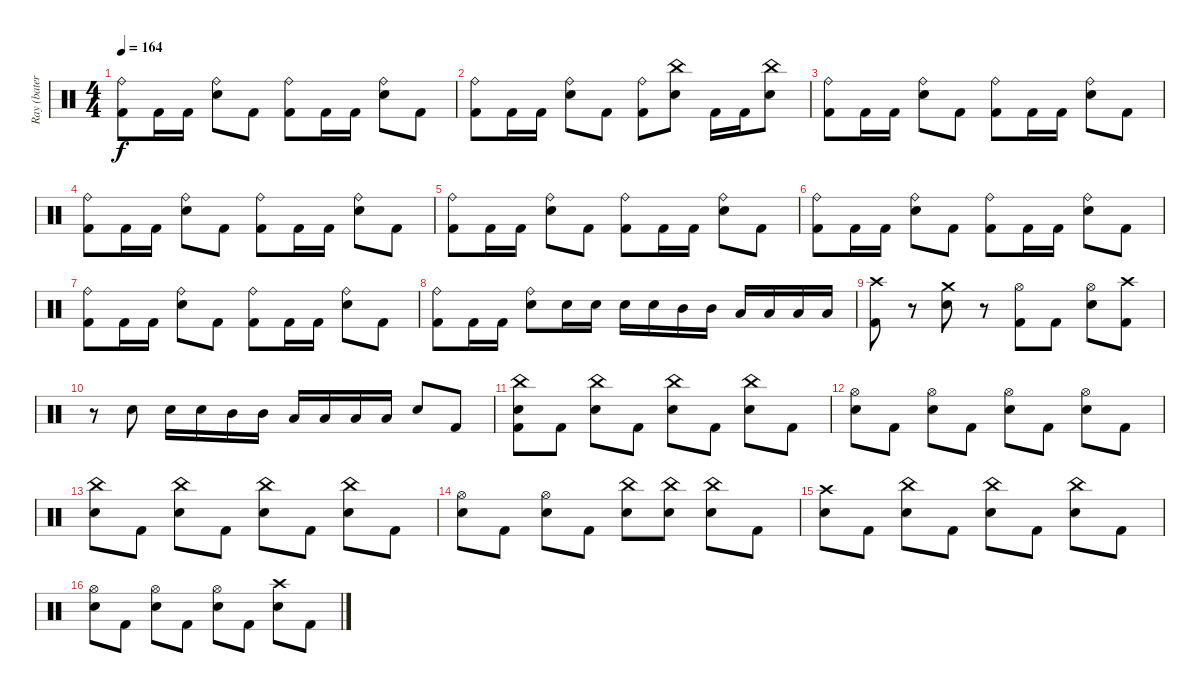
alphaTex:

\track ("Ray (batería)" "Ray (bater") {instrument percussion}
\staff {score}
\articulation defaults
\ts (4 4)
\tempo 164
\clef neutral
\ks c
("Ride (bell)" "Kick (hit) 2").8{dy f} "Kick (hit) 2".16 "Kick (hit) 2".16 ("Ride (bell)" "Snare (hit) 2").8 "Kick (hit) 2".8 ("Ride (bell)" "Kick (hit) 2").8 "Kick (hit) 2".16 "Kick (hit) 2".16 ("Ride (bell)" "Snare (hit) 2").8 "Kick (hit) 2".8 |
("Ride (bell)" "Kick (hit) 2").8 "Kick (hit) 2".16 "Kick (hit) 2".16 ("Ride (bell)" "Snare (hit) 2").8 "Kick (hit) 2".8 ("Ride (bell)" "Kick (hit) 2").8 ("China (hit)" "Snare (hit) 2").8 "Kick (hit) 2".16 "Kick (hit) 2".16 ("China (hit)" "Snare (hit) 2").8 |
("Ride (bell)" "Kick (hit) 2").8 "Kick (hit) 2".16 "Kick (hit) 2".16 ("Ride (bell)" "Snare (hit) 2").8 "Kick (hit) 2".8 ("Ride (bell)" "Kick (hit) 2").8 "Kick (hit) 2".16 "Kick (hit) 2".16 ("Ride (bell)" "Snare (hit) 2").8 "Kick (hit) 2".8 |
("Ride (bell)" "Kick (hit) 2").8 "Kick (hit) 2".16 "Kick (hit) 2".16 ("Ride (bell)" "Snare (hit) 2").8 "Kick (hit) 2".8 ("Ride (bell)" "Kick (hit) 2").8 "Kick (hit) 2".16 "Kick (hit) 2".16 ("Ride (bell)" "Snare (hit) 2").8 "Kick (hit) 2".8 |
("Ride (bell)" "Kick (hit) 2").8 "Kick (hit) 2".16 "Kick (hit) 2".16 ("Ride (bell)" "Snare (hit) 2").8 "Kick (hit) 2".8 ("Ride (bell)" "Kick (hit) 2").8 "Kick (hit) 2".16 "Kick (hit) 2".16 ("Ride (bell)" "Snare (hit) 2").8 "Kick (hit) 2".8 |
("Ride (bell)" "Kick (hit) 2").8 "Kick (hit) 2".16 "Kick (hit) 2".16 ("Ride (bell)" "Snare (hit) 2").8 "Kick (hit) 2".8 ("Ride (bell)" "Kick (hit) 2").8 "Kick (hit) 2".16 "Kick (hit) 2".16 ("Ride (bell)" "Snare (hit) 2").8 "Kick (hit) 2".8 |
("Ride (bell)" "Kick (hit) 2").8 "Kick (hit) 2".16 "Kick (hit) 2".16 ("Ride (bell)" "Snare (hit) 2").8 "Kick (hit) 2".8 ("Ride (bell)" "Kick (hit) 2").8 "Kick (hit) 2".16 "Kick (hit) 2".16 ("Ride (bell)" "Snare (hit) 2").8 "Kick (hit) 2".8 |
("Ride (bell)" "Kick (hit) 2").8 "Kick (hit) 2".16 "Kick (hit) 2".16 ("Ride (bell)" "Snare (hit) 2").8 "Snare (hit) 2".16 "Snare (hit) 2".16 "Snare (hit) 2".16 "Snare (hit) 2".16 "Mid Tom (hit)".16 "Mid Tom (hit)".16 "Low Tom (hit)".16 "Low Tom (hit)".16 "Low Floor Tom (hit)".16 "Low Floor Tom (hit)".16 |
("Crash high (hit)" "Kick (hit) 2").8 r.8 ("Crash medium (hit)" "Snare (hit) 2").8 r.8 ("Hi-Hat (open)" "Kick (hit) 2").8 "Kick (hit) 2".8 ("Hi-Hat (open)" "Snare (hit) 2").8 ("Crash high (hit)" "Kick (hit) 2").8 |
r.8 "Snare (hit) 2".8 "Snare (hit) 2".16 "Snare (hit) 2".16 "Mid Tom (hit)".16 "Mid Tom (hit)".16 "Low Tom (hit)".16 "Low Tom (hit)".16 "Low Floor Tom (hit)".16 "Low Floor Tom (hit)".16 "Snare (hit) 2".8 "Kick (hit) 2".8 |
\section ("" "")
("China (hit)" "Snare (hit) 2" "Kick (hit) 2").8 "Kick (hit) 2".8 ("China (hit)" "Snare (hit) 2").8 "Kick (hit) 2".8 ("China (hit)" "Snare (hit) 2").8 "Kick (hit) 2".8 ("China (hit)" "Snare (hit) 2").8 "Kick (hit) 2".8 |
("Hi-Hat (open)" "Snare (hit) 2").8 "Kick (hit) 2".8 ("Hi-Hat (open)" "Snare (hit) 2").8 "Kick (hit) 2".8 ("Hi-Hat (open)" "Snare (hit) 2").8 "Kick (hit) 2".8 ("Hi-Hat (open)" "Snare (hit) 2").8 "Kick (hit) 2".8 |
("China (hit)" "Snare (hit) 2").8 "Kick (hit) 2".8 ("China (hit)" "Snare (hit) 2").8 "Kick (hit) 2".8 ("China (hit)" "Snare (hit) 2").8 "Kick (hit) 2".8 ("China (hit)" "Snare (hit) 2").8 "Kick (hit) 2".8 |
("Hi-Hat (open)" "Snare (hit) 2").8 "Kick (hit) 2".8 ("Hi-Hat (open)" "Snare (hit) 2").8 "Kick (hit) 2".8 ("China (hit)" "Snare (hit) 2").8 ("China (hit)" "Snare (hit) 2").8 ("China (hit)" "Snare (hit) 2").8 "Kick (hit) 2".8 |
("Crash high (hit)" "Snare (hit) 2").8 "Kick (hit) 2".8 ("China (hit)" "Snare (hit) 2").8 "Kick (hit) 2".8 ("China (hit)" "Snare (hit) 2").8 "Kick (hit) 2".8 ("China (hit)" "Snare (hit) 2").8 "Kick (hit) 2".8 |
("Hi-Hat (open)" "Snare (hit) 2").8 "Kick (hit) 2".8 ("Hi-Hat (open)" "Snare (hit) 2").8 "Kick (hit) 2".8 ("Hi-Hat (open)" "Snare (hit) 2").8 "Kick (hit) 2".8 ("Crash high (hit)" "Snare (hit) 2").8 "Kick (hit) 2".8
